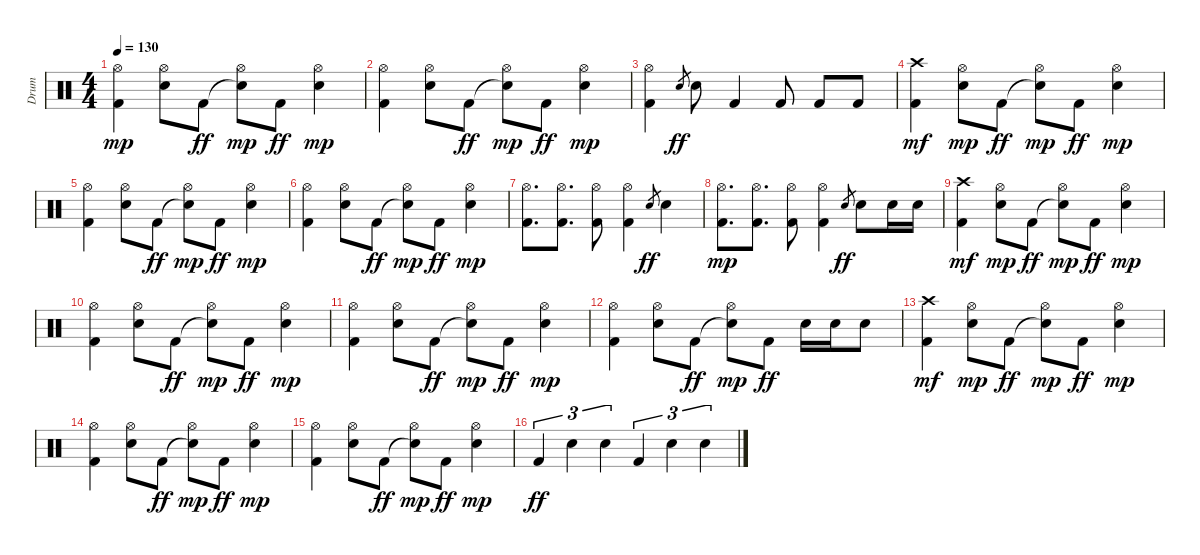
\track ("Drum" "Drum") {instrument percussion}
\staff {score}
\articulation defaults
\ts (4 4)
\tempo 130
\clef neutral
\ks c
("Kick (hit) 2" "Hi-Hat (open)").4{dy mp} ("Electric Snare (hit)" "Hi-Hat (open)").8 "Kick (hit) 2".8{dy ff} ("Snare (hit)"{t} "Hi-Hat (open)").8{dy mp} "Kick (hit) 2".8{dy ff} ("Electric Snare (hit)" "Hi-Hat (open)").4{dy mp} |
("Kick (hit) 2" "Hi-Hat (open)").4 ("Electric Snare (hit)" "Hi-Hat (open)").8 "Kick (hit) 2".8{dy ff} ("Snare (hit)"{t} "Hi-Hat (open)").8{dy mp} "Kick (hit) 2".8{dy ff} ("Electric Snare (hit)" "Hi-Hat (open)").4{dy mp} |
("Kick (hit) 2" "Hi-Hat (open)").4 "Electric Snare (hit)".8{gr dy ff} "Electric Snare (hit)".8 "Kick (hit) 2".4 "Kick (hit) 2".8 "Kick (hit) 2".8 "Kick (hit) 2".8 |
("Kick (hit) 2" "Crash high (hit)").4{dy mf} ("Electric Snare (hit)" "Hi-Hat (open)").8{dy mp} "Kick (hit) 2".8{dy ff} ("Snare (hit)"{t} "Hi-Hat (open)").8{dy mp} "Kick (hit) 2".8{dy ff} ("Electric Snare (hit)" "Hi-Hat (open)").4{dy mp} |
("Kick (hit) 2" "Hi-Hat (open)").4 ("Electric Snare (hit)" "Hi-Hat (open)").8 "Kick (hit) 2".8{dy ff} ("Snare (hit)"{t} "Hi-Hat (open)").8{dy mp} "Kick (hit) 2".8{dy ff} ("Electric Snare (hit)" "Hi-Hat (open)").4{dy mp} |
("Kick (hit) 2" "Hi-Hat (open)").4 ("Electric Snare (hit)" "Hi-Hat (open)").8 "Kick (hit) 2".8{dy ff} ("Snare (hit)"{t} "Hi-Hat (open)").8{dy mp} "Kick (hit) 2".8{dy ff} ("Electric Snare (hit)" "Hi-Hat (open)").4{dy mp} |
("Kick (hit) 2" "Hi-Hat (open)").8{d} ("Kick (hit) 2" "Hi-Hat (open)").8{d} ("Kick (hit) 2" "Hi-Hat (open)").8 ("Kick (hit) 2" "Hi-Hat (open)").4 "Electric Snare (hit)".8{gr dy ff} "Electric Snare (hit)".4 |
("Kick (hit) 2" "Hi-Hat (open)").8{d dy mp} ("Kick (hit) 2" "Hi-Hat (open)").8{d} ("Kick (hit) 2" "Hi-Hat (open)").8 ("Kick (hit) 2" "Hi-Hat (open)").4 "Electric Snare (hit)".8{gr dy ff} "Electric Snare (hit)".8 "Electric Snare (hit)".16 "Electric Snare (hit)".16 |
("Kick (hit) 2" "Crash high (hit)").4{dy mf} ("Electric Snare (hit)" "Hi-Hat (open)").8{dy mp} "Kick (hit) 2".8{dy ff} ("Snare (hit)"{t} "Hi-Hat (open)").8{dy mp} "Kick (hit) 2".8{dy ff} ("Electric Snare (hit)" "Hi-Hat (open)").4{dy mp} |
("Kick (hit) 2" "Hi-Hat (open)").4 ("Electric Snare (hit)" "Hi-Hat (open)").8 "Kick (hit) 2".8{dy ff} ("Snare (hit)"{t} "Hi-Hat (open)").8{dy mp} "Kick (hit) 2".8{dy ff} ("Electric Snare (hit)" "Hi-Hat (open)").4{dy mp} |
("Kick (hit) 2" "Hi-Hat (open)").4 ("Electric Snare (hit)" "Hi-Hat (open)").8 "Kick (hit) 2".8{dy ff} ("Snare (hit)"{t} "Hi-Hat (open)").8{dy mp} "Kick (hit) 2".8{dy ff} ("Electric Snare (hit)" "Hi-Hat (open)").4{dy mp} |
("Kick (hit) 2" "Hi-Hat (open)").4 ("Electric Snare (hit)" "Hi-Hat (open)").8 "Kick (hit) 2".8{dy ff} ("Snare (hit)"{t} "Hi-Hat (open)").8{dy mp} "Kick (hit) 2".8{dy ff} "Electric Snare (hit)".16 "Electric Snare (hit)".16 "Electric Snare (hit)".8 |
("Kick (hit) 2" "Crash high (hit)").4{dy mf} ("Electric Snare (hit)" "Hi-Hat (open)").8{dy mp} "Kick (hit) 2".8{dy ff} ("Snare (hit)"{t} "Hi-Hat (open)").8{dy mp} "Kick (hit) 2".8{dy ff} ("Electric Snare (hit)" "Hi-Hat (open)").4{dy mp} |
("Kick (hit) 2" "Hi-Hat (open)").4 ("Electric Snare (hit)" "Hi-Hat (open)").8 "Kick (hit) 2".8{dy ff} ("Snare (hit)"{t} "Hi-Hat (open)").8{dy mp} "Kick (hit) 2".8{dy ff} ("Electric Snare (hit)" "Hi-Hat (open)").4{dy mp} |
("Kick (hit) 2" "Hi-Hat (open)").4 ("Electric Snare (hit)" "Hi-Hat (open)").8 "Kick (hit) 2".8{dy ff} ("Snare (hit)"{t} "Hi-Hat (open)").8{dy mp} "Kick (hit) 2".8{dy ff} ("Electric Snare (hit)" "Hi-Hat (open)").4{dy mp} |
"Kick (hit) 2".4{tu (3 2) dy ff} "Electric Snare (hit)".4{tu (3 2)} "Electric Snare (hit)".4{tu (3 2)} "Kick (hit) 2".4{tu (3 2)} "Electric Snare (hit)".4{tu (3 2)} "Electric Snare (hit)".4{tu (3 2)}
